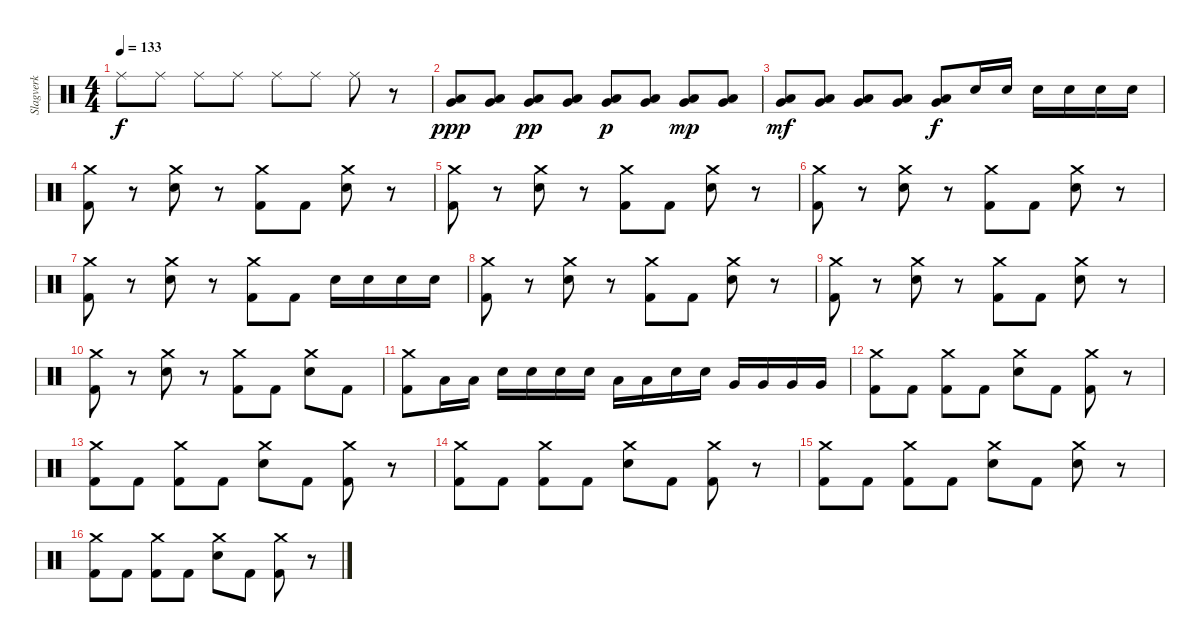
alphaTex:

\track ("Slagverk" "Slagverk") {instrument percussion}
\staff {score}
\articulation defaults
\ts (4 4)
\tempo 133
\clef neutral
\ks c "Ride (middle)".8{dy f} "Ride (middle)".8 "Ride (middle)".8 "Ride (middle)".8 "Ride (middle)".8 "Ride (middle)".8 "Ride (middle)".8
r.8 |
("Very Low Tom (hit)" "Low Tom (hit)").8{dy ppp} ("Very Low Tom (hit)" "Low Tom (hit)").8 ("Very Low Tom (hit)" "Low Tom (hit)").8{dy pp} ("Very Low Tom (hit)" "Low Tom (hit)").8 ("Very Low Tom (hit)" "Low Tom (hit)").8{dy p} ("Very Low Tom (hit)" "Low Tom (hit)").8 ("Very Low Tom (hit)" "Low Tom (hit)").8{dy mp} ("Very Low Tom (hit)" "Low Tom (hit)").8 |
("Very Low Tom (hit)" "Low Tom (hit)").8{dy mf} ("Very Low Tom (hit)" "Low Tom (hit)").8 ("Very Low Tom (hit)" "Low Tom (hit)").8 ("Very Low Tom (hit)" "Low Tom (hit)").8 ("Very Low Tom (hit)" "Low Tom (hit)").8{dy f} "Snare (hit) 2".16 "Snare (hit) 2".16 "Snare (hit) 2".16 "Snare (hit) 2".16 "Snare (hit) 2".16 "Snare (hit) 2".16 |
("Crash medium (hit)" "Kick (hit) 2").8 r.8 ("Crash medium (hit)" "Snare (hit) 2").8 r.8 ("Crash medium (hit)" "Kick (hit) 2").8 "Kick (hit) 2".8 ("Crash medium (hit)" "Snare (hit) 2").8 r.8 |
("Crash medium (hit)" "Kick (hit) 2").8 r.8 ("Crash medium (hit)" "Snare (hit) 2").8 r.8 ("Crash medium (hit)" "Kick (hit) 2").8 "Kick (hit) 2".8 ("Crash medium (hit)" "Snare (hit) 2").8 r.8 |
("Crash medium (hit)" "Kick (hit) 2").8 r.8 ("Crash medium (hit)" "Snare (hit) 2").8 r.8 ("Crash medium (hit)" "Kick (hit) 2").8 "Kick (hit) 2".8 ("Crash medium (hit)" "Snare (hit) 2").8 r.8 |
("Crash medium (hit)" "Kick (hit) 2").8 r.8 ("Crash medium (hit)" "Snare (hit) 2").8 r.8 ("Crash medium (hit)" "Kick (hit) 2").8 "Kick (hit) 2".8 "Snare (hit) 2".16 "Snare (hit) 2".16 "Snare (hit) 2".16 "Snare (hit) 2".16 |
("Crash medium (hit)" "Kick (hit) 2").8 r.8 ("Crash medium (hit)" "Snare (hit) 2").8 r.8 ("Crash medium (hit)" "Kick (hit) 2").8 "Kick (hit) 2".8 ("Crash medium (hit)" "Snare (hit) 2").8 r.8 |
("Crash medium (hit)" "Kick (hit) 2").8 r.8 ("Crash medium (hit)" "Snare (hit) 2").8 r.8 ("Crash medium (hit)" "Kick (hit) 2").8 "Kick (hit) 2".8 ("Crash medium (hit)" "Snare (hit) 2").8 r.8 |
("Crash medium (hit)" "Kick (hit) 2").8 r.8 ("Crash medium (hit)" "Snare (hit) 2").8 r.8 ("Crash medium (hit)" "Kick (hit) 2").8 "Kick (hit) 2".8 ("Crash medium (hit)" "Snare (hit) 2").8 "Kick (hit) 2".8 |
("Crash medium (hit)" "Kick (hit) 2").8 "Low Tom (hit)".16 "Low Tom (hit)".16 "Snare (hit) 2".16 "Snare (hit) 2".16 "Snare (hit) 2".16 "Snare (hit) 2".16 "Low Tom (hit)".16 "Low Tom (hit)".16 "Snare (hit) 2".16 "Snare (hit) 2".16 "Very Low Tom (hit)".16 "Very Low Tom (hit)".16 "Very Low Tom (hit)".16 "Very Low Tom (hit)".16 |
("Crash medium (hit)" "Kick (hit) 2").8 "Kick (hit) 2".8 ("Crash medium (hit)" "Kick (hit) 2").8 "Kick (hit) 2".8 ("Crash medium (hit)" "Snare (hit) 2").8 "Kick (hit) 2".8 ("Crash medium (hit)" "Kick (hit) 2").8 r.8 |
("Crash medium (hit)" "Kick (hit) 2").8 "Kick (hit) 2".8 ("Crash medium (hit)" "Kick (hit) 2").8 "Kick (hit) 2".8 ("Crash medium (hit)" "Snare (hit) 2").8 "Kick (hit) 2".8 ("Crash medium (hit)" "Kick (hit) 2").8 r.8 |
("Crash medium (hit)" "Kick (hit) 2").8 "Kick (hit) 2".8 ("Crash medium (hit)" "Kick (hit) 2").8 "Kick (hit) 2".8 ("Crash medium (hit)" "Snare (hit) 2").8 "Kick (hit) 2".8 ("Crash medium (hit)" "Kick (hit) 2").8 r.8 |
("Crash medium (hit)" "Kick (hit) 2").8 "Kick (hit) 2".8 ("Crash medium (hit)" "Kick (hit) 2").8 "Kick (hit) 2".8 ("Crash medium (hit)" "Snare (hit) 2").8 "Kick (hit) 2".8 ("Crash medium (hit)" "Snare (hit) 2").8 r.8 |
("Crash medium (hit)" "Kick (hit) 2").8 "Kick (hit) 2".8 ("Crash medium (hit)" "Kick (hit) 2").8 "Kick (hit) 2".8 ("Crash medium (hit)" "Snare (hit) 2").8 "Kick (hit) 2".8 ("Crash medium (hit)" "Kick (hit) 2").8 r.8
